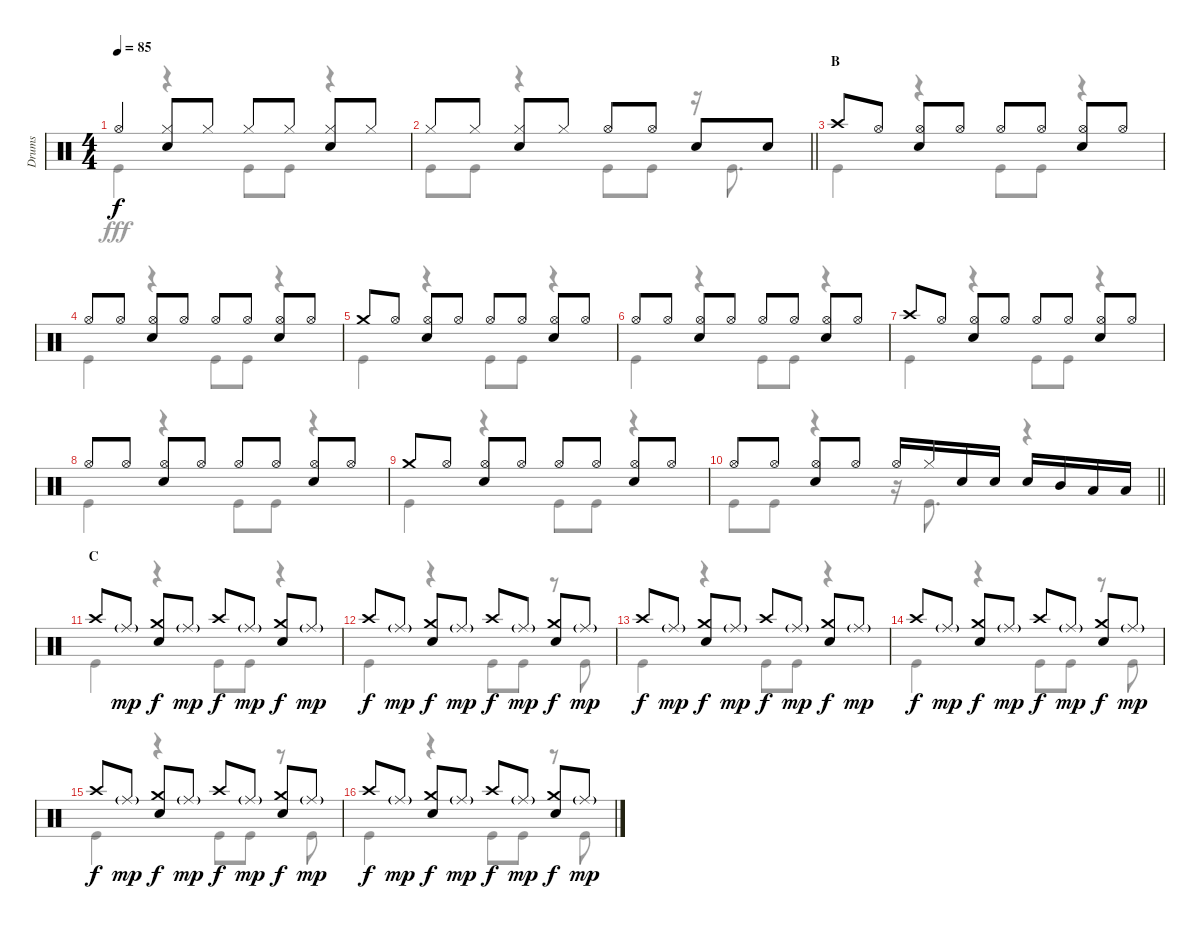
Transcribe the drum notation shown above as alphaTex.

\track ("Drums" "Drums") {instrument percussion}
\staff {score}
\articulation defaults
\voice
\ts (4 4)
\tempo 85
\clef neutral
\ks c "Hi-Hat (open)".4{dy f}
("Hi-Hat (closed)" "Snare (hit) 2").8 "Hi-Hat (closed)".8 "Hi-Hat (closed)".8 "Hi-Hat (closed)".8 ("Hi-Hat (closed)" "Snare (hit) 2").8 "Hi-Hat (closed)".8 |
\barLineRight lightlight "Hi-Hat (closed)".8 "Hi-Hat (closed)".8
("Hi-Hat (closed)" "Snare (hit) 2").8 "Hi-Hat (closed)".8 "Hi-Hat (open)".8 "Hi-Hat (open)".8 "Snare (hit) 2".8 "Snare (hit) 2".8 |
\section ("" "B")
"Crash high (hit)".8 "Hi-Hat (open)".8 ("Hi-Hat (open)" "Snare (hit) 2").8 "Hi-Hat (open)".8 "Hi-Hat (open)".8 "Hi-Hat (open)".8 ("Hi-Hat (open)" "Snare (hit) 2").8 "Hi-Hat (open)".8 |
"Hi-Hat (open)".8 "Hi-Hat (open)".8 ("Hi-Hat (open)" "Snare (hit) 2").8 "Hi-Hat (open)".8 "Hi-Hat (open)".8 "Hi-Hat (open)".8 ("Hi-Hat (open)" "Snare (hit) 2").8 "Hi-Hat (open)".8 |
"Crash medium (hit)".8 "Hi-Hat (open)".8 ("Hi-Hat (open)" "Snare (hit) 2").8 "Hi-Hat (open)".8 "Hi-Hat (open)".8 "Hi-Hat (open)".8 ("Hi-Hat (open)" "Snare (hit) 2").8 "Hi-Hat (open)".8 |
"Hi-Hat (open)".8 "Hi-Hat (open)".8 ("Hi-Hat (open)" "Snare (hit) 2").8 "Hi-Hat (open)".8 "Hi-Hat (open)".8 "Hi-Hat (open)".8 ("Hi-Hat (open)" "Snare (hit) 2").8 "Hi-Hat (open)".8 |
"Crash high (hit)".8 "Hi-Hat (open)".8 ("Hi-Hat (open)" "Snare (hit) 2").8 "Hi-Hat (open)".8 "Hi-Hat (open)".8 "Hi-Hat (open)".8 ("Hi-Hat (open)" "Snare (hit) 2").8 "Hi-Hat (open)".8 |
"Hi-Hat (open)".8 "Hi-Hat (open)".8 ("Hi-Hat (open)" "Snare (hit) 2").8 "Hi-Hat (open)".8 "Hi-Hat (open)".8 "Hi-Hat (open)".8 ("Hi-Hat (open)" "Snare (hit) 2").8 "Hi-Hat (open)".8 |
"Crash medium (hit)".8 "Hi-Hat (open)".8 ("Hi-Hat (open)" "Snare (hit) 2").8 "Hi-Hat (open)".8 "Hi-Hat (open)".8 "Hi-Hat (open)".8 ("Hi-Hat (open)" "Snare (hit) 2").8 "Hi-Hat (open)".8 |
\barLineRight lightlight "Hi-Hat (open)".8 "Hi-Hat (open)".8
("Hi-Hat (open)" "Snare (hit) 2").8 "Hi-Hat (open)".8 "Hi-Hat (open)".16 "Hi-Hat (closed)".16 "Snare (hit) 2".16 "Snare (hit) 2".16 "Snare (hit) 2".16 "Mid Tom (hit)".16 "Low Tom (hit)".16 "Low Tom (hit)".16 |
\section ("" "C")
"Crash high (hit)".8 "Ride (middle)"{g}.8{dy mp} ("Crash medium (hit)" "Snare (hit) 2").8{dy f} "Ride (middle)"{g}.8{dy mp} "Crash high (hit)".8{dy f} "Ride (middle)"{g}.8{dy mp} ("Crash medium (hit)" "Snare (hit) 2").8{dy f} "Ride (middle)"{g}.8{dy mp} |
"Crash high (hit)".8{dy f} "Ride (middle)"{g}.8{dy mp} ("Crash medium (hit)" "Snare (hit) 2").8{dy f} "Ride (middle)"{g}.8{dy mp} "Crash high (hit)".8{dy f} "Ride (middle)"{g}.8{dy mp} ("Crash medium (hit)" "Snare (hit) 2").8{dy f} "Ride (middle)"{g}.8{dy mp} |
"Crash high (hit)".8{dy f} "Ride (middle)"{g}.8{dy mp} ("Crash medium (hit)" "Snare (hit) 2").8{dy f} "Ride (middle)"{g}.8{dy mp} "Crash high (hit)".8{dy f} "Ride (middle)"{g}.8{dy mp} ("Crash medium (hit)" "Snare (hit) 2").8{dy f} "Ride (middle)"{g}.8{dy mp} |
"Crash high (hit)".8{dy f} "Ride (middle)"{g}.8{dy mp} ("Crash medium (hit)" "Snare (hit) 2").8{dy f} "Ride (middle)"{g}.8{dy mp} "Crash high (hit)".8{dy f} "Ride (middle)"{g}.8{dy mp} ("Crash medium (hit)" "Snare (hit) 2").8{dy f} "Ride (middle)"{g}.8{dy mp} |
"Crash high (hit)".8{dy f} "Ride (middle)"{g}.8{dy mp} ("Crash medium (hit)" "Snare (hit) 2").8{dy f} "Ride (middle)"{g}.8{dy mp} "Crash high (hit)".8{dy f} "Ride (middle)"{g}.8{dy mp} ("Crash medium (hit)" "Snare (hit) 2").8{dy f} "Ride (middle)"{g}.8{dy mp} |
"Crash high (hit)".8{dy f} "Ride (middle)"{g}.8{dy mp} ("Crash medium (hit)" "Snare (hit) 2").8{dy f} "Ride (middle)"{g}.8{dy mp} "Crash high (hit)".8{dy f} "Ride (middle)"{g}.8{dy mp} ("Crash medium (hit)" "Snare (hit) 2").8{dy f} "Ride (middle)"{g}.8{dy mp}
\voice
\clef neutral
\ottava regular
\simile none
\ks c "Kick (hit)".4{dy fff}
r.4 "Kick (hit)".8 "Kick (hit)".8 r.4 |
\barLineRight lightlight "Kick (hit)".8 "Kick (hit)".8
r.4 "Kick (hit)".8 "Kick (hit)".8 r.16 "Kick (hit)".8{d} |
"Kick (hit)".4 r.4 "Kick (hit)".8 "Kick (hit)".8 r.4 |
"Kick (hit)".4 r.4 "Kick (hit)".8 "Kick (hit)".8 r.4 |
"Kick (hit)".4 r.4 "Kick (hit)".8 "Kick (hit)".8 r.4 |
"Kick (hit)".4 r.4 "Kick (hit)".8 "Kick (hit)".8 r.4 |
"Kick (hit)".4 r.4 "Kick (hit)".8 "Kick (hit)".8 r.4 |
"Kick (hit)".4 r.4 "Kick (hit)".8 "Kick (hit)".8 r.4 |
"Kick (hit)".4 r.4 "Kick (hit)".8 "Kick (hit)".8 r.4 |
\barLineRight lightlight "Kick (hit)".8 "Kick (hit)".8
r.4 r.16 "Kick (hit)".8{d} r.4 |
"Kick (hit)".4 r.4 "Kick (hit)".8 "Kick (hit)".8 r.4 |
"Kick (hit)".4 r.4 "Kick (hit)".8 "Kick (hit)".8 r.8 "Kick (hit)".8 |
"Kick (hit)".4 r.4 "Kick (hit)".8 "Kick (hit)".8 r.4 |
"Kick (hit)".4 r.4 "Kick (hit)".8 "Kick (hit)".8 r.8 "Kick (hit)".8 |
"Kick (hit)".4 r.4 "Kick (hit)".8 "Kick (hit)".8 r.8 "Kick (hit)".8 |
"Kick (hit)".4 r.4 "Kick (hit)".8 "Kick (hit)".8 r.8 "Kick (hit)".8
